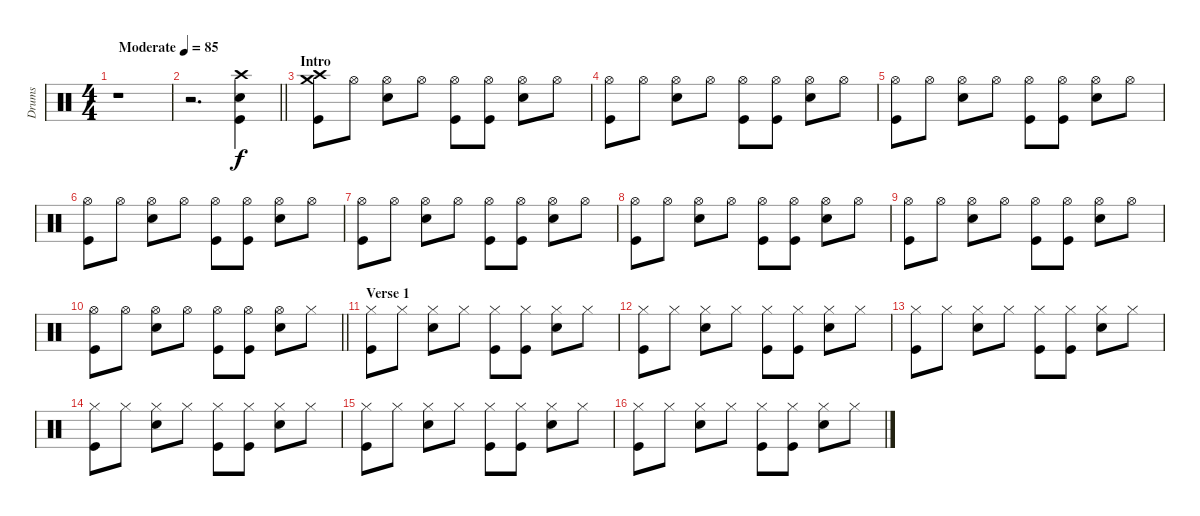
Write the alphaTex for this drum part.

\track ("Drums" "Drums") {instrument percussion}
\staff {score}
\articulation defaults
\ts (4 4)
\tempo (85 "Moderate")
\clef neutral
\ks c
r.1{dy f} |
\barLineRight lightlight
r.2{d} ("Crash high (hit)" "Snare (hit) 2" "Kick (hit)").4 |
\section ("" "Intro")
("Crash high (hit)" "Crash medium (hit)" "Kick (hit)").8 "Hi-Hat (open)".8 ("Hi-Hat (open)" "Snare (hit) 2").8 "Hi-Hat (open)".8 ("Hi-Hat (open)" "Kick (hit)").8 ("Hi-Hat (open)" "Kick (hit)").8 ("Hi-Hat (open)" "Snare (hit) 2").8 "Hi-Hat (open)".8 |
("Hi-Hat (open)" "Kick (hit)").8 "Hi-Hat (open)".8 ("Hi-Hat (open)" "Snare (hit) 2").8 "Hi-Hat (open)".8 ("Hi-Hat (open)" "Kick (hit)").8 ("Hi-Hat (open)" "Kick (hit)").8 ("Hi-Hat (open)" "Snare (hit) 2").8 "Hi-Hat (open)".8 |
("Hi-Hat (open)" "Kick (hit)").8 "Hi-Hat (open)".8 ("Hi-Hat (open)" "Snare (hit) 2").8 "Hi-Hat (open)".8 ("Hi-Hat (open)" "Kick (hit)").8 ("Hi-Hat (open)" "Kick (hit)").8 ("Hi-Hat (open)" "Snare (hit) 2").8 "Hi-Hat (open)".8 |
("Hi-Hat (open)" "Kick (hit)").8 "Hi-Hat (open)".8 ("Hi-Hat (open)" "Snare (hit) 2").8 "Hi-Hat (open)".8 ("Hi-Hat (open)" "Kick (hit)").8 ("Hi-Hat (open)" "Kick (hit)").8 ("Hi-Hat (open)" "Snare (hit) 2").8 "Hi-Hat (open)".8 |
("Hi-Hat (open)" "Kick (hit)").8 "Hi-Hat (open)".8 ("Hi-Hat (open)" "Snare (hit) 2").8 "Hi-Hat (open)".8 ("Hi-Hat (open)" "Kick (hit)").8 ("Hi-Hat (open)" "Kick (hit)").8 ("Hi-Hat (open)" "Snare (hit) 2").8 "Hi-Hat (open)".8 |
("Hi-Hat (open)" "Kick (hit)").8 "Hi-Hat (open)".8 ("Hi-Hat (open)" "Snare (hit) 2").8 "Hi-Hat (open)".8 ("Hi-Hat (open)" "Kick (hit)").8 ("Hi-Hat (open)" "Kick (hit)").8 ("Hi-Hat (open)" "Snare (hit) 2").8 "Hi-Hat (open)".8 |
("Hi-Hat (open)" "Kick (hit)").8 "Hi-Hat (open)".8 ("Hi-Hat (open)" "Snare (hit) 2").8 "Hi-Hat (open)".8 ("Hi-Hat (open)" "Kick (hit)").8 ("Hi-Hat (open)" "Kick (hit)").8 ("Hi-Hat (open)" "Snare (hit) 2").8 "Hi-Hat (open)".8 |
\barLineRight lightlight
("Hi-Hat (open)" "Kick (hit)").8 "Hi-Hat (open)".8 ("Hi-Hat (open)" "Snare (hit) 2").8 "Hi-Hat (open)".8 ("Hi-Hat (open)" "Kick (hit)").8 ("Hi-Hat (open)" "Kick (hit)").8 ("Hi-Hat (open)" "Snare (hit) 2").8 "Hi-Hat (closed)".8 |
\section ("" "Verse 1")
("Hi-Hat (closed)" "Kick (hit)").8 "Hi-Hat (closed)".8 ("Hi-Hat (closed)" "Snare (hit) 2").8 "Hi-Hat (closed)".8 ("Hi-Hat (closed)" "Kick (hit)").8 ("Hi-Hat (closed)" "Kick (hit)").8 ("Hi-Hat (closed)" "Snare (hit) 2").8 "Hi-Hat (closed)".8 |
("Hi-Hat (closed)" "Kick (hit)").8 "Hi-Hat (closed)".8 ("Hi-Hat (closed)" "Snare (hit) 2").8 "Hi-Hat (closed)".8 ("Hi-Hat (closed)" "Kick (hit)").8 ("Hi-Hat (closed)" "Kick (hit)").8 ("Hi-Hat (closed)" "Snare (hit) 2").8 "Hi-Hat (closed)".8 |
("Hi-Hat (closed)" "Kick (hit)").8 "Hi-Hat (closed)".8 ("Hi-Hat (closed)" "Snare (hit) 2").8 "Hi-Hat (closed)".8 ("Hi-Hat (closed)" "Kick (hit)").8 ("Hi-Hat (closed)" "Kick (hit)").8 ("Hi-Hat (closed)" "Snare (hit) 2").8 "Hi-Hat (closed)".8 |
("Hi-Hat (closed)" "Kick (hit)").8 "Hi-Hat (closed)".8 ("Hi-Hat (closed)" "Snare (hit) 2").8 "Hi-Hat (closed)".8 ("Hi-Hat (closed)" "Kick (hit)").8 ("Hi-Hat (closed)" "Kick (hit)").8 ("Hi-Hat (closed)" "Snare (hit) 2").8 "Hi-Hat (closed)".8 |
("Hi-Hat (closed)" "Kick (hit)").8 "Hi-Hat (closed)".8 ("Hi-Hat (closed)" "Snare (hit) 2").8 "Hi-Hat (closed)".8 ("Hi-Hat (closed)" "Kick (hit)").8 ("Hi-Hat (closed)" "Kick (hit)").8 ("Hi-Hat (closed)" "Snare (hit) 2").8 "Hi-Hat (closed)".8 |
("Hi-Hat (closed)" "Kick (hit)").8 "Hi-Hat (closed)".8 ("Hi-Hat (closed)" "Snare (hit) 2").8 "Hi-Hat (closed)".8 ("Hi-Hat (closed)" "Kick (hit)").8 ("Hi-Hat (closed)" "Kick (hit)").8 ("Hi-Hat (closed)" "Snare (hit) 2").8 "Hi-Hat (closed)".8
